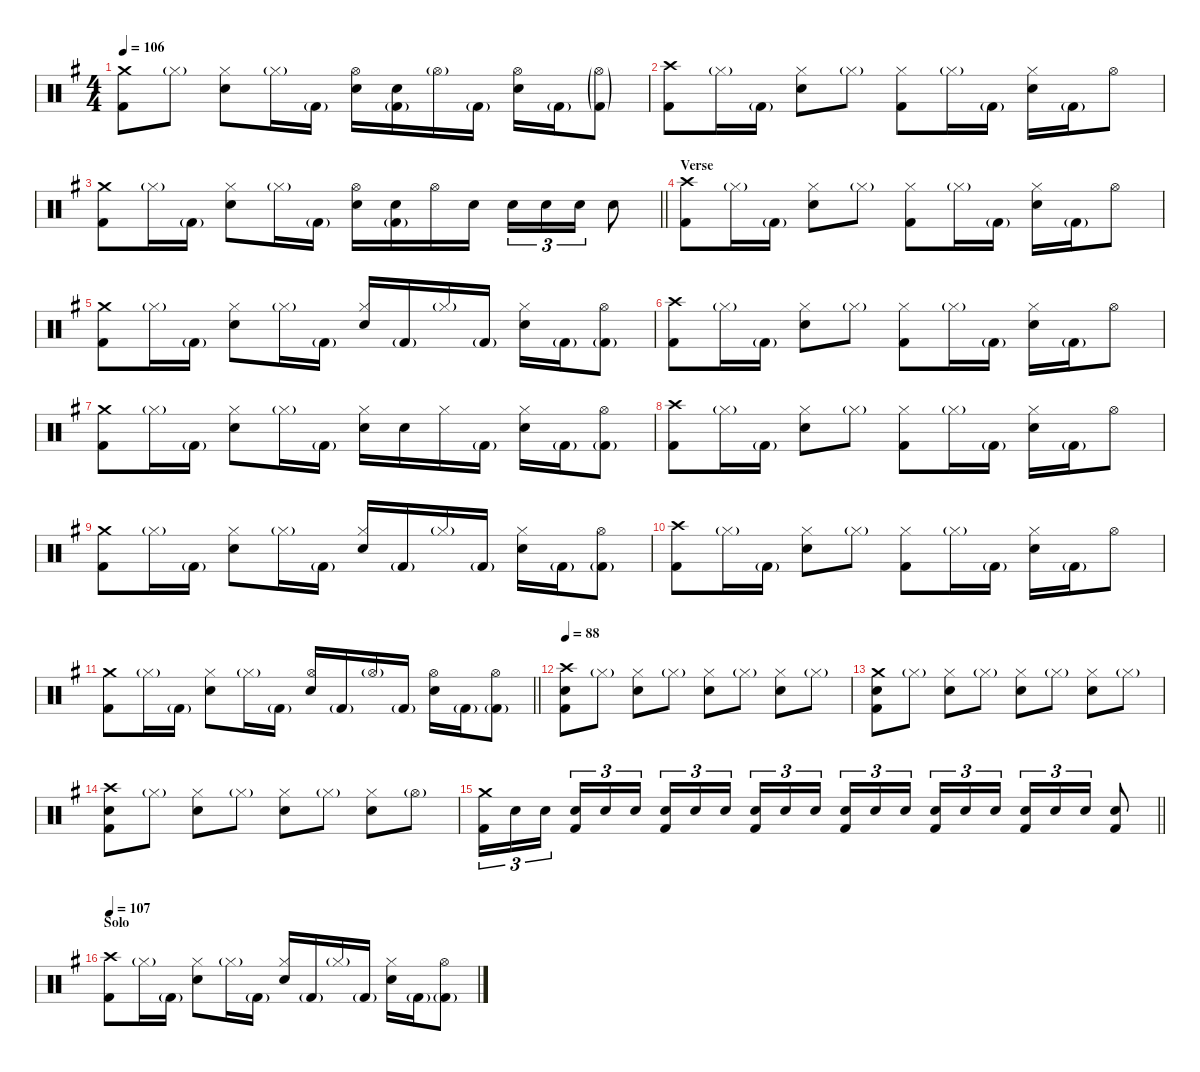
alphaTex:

\defaultSystemsLayout 4
\hideDynamics
\bracketExtendMode nobrackets
\singleTrackTrackNamePolicy hidden
\multiTrackTrackNamePolicy hidden
\firstSystemTrackNameMode fullname
\firstSystemTrackNameOrientation horizontal
\otherSystemsTrackNameOrientation horizontal
\track ("Bill" "drm.") {instrument percussion}
\staff {score}
\articulation defaults
\ts (4 4)
\tempo 106
\clef neutral
\ks eminor
("Crash medium (hit)"{acc forcenatural} "Kick (hit) 2"{acc forcenatural}).8{dy f beam Down} "Hi-Hat (closed)"{g acc forcenatural}.8{dy mf beam Down} ("Hi-Hat (closed)"{acc forcenatural} "Snare (hit) 2"{acc forcenatural}).8{dy f beam Down} "Hi-Hat (closed)"{g acc forcenatural}.16{dy mf beam Down} "Kick (hit) 2"{g acc forcenatural}.16{beam Down} ("Hi-Hat (open)"{acc forcenatural} "Snare (hit) 2"{acc forcenatural}).16{dy f beam Down} ("Snare (hit) 2"{acc forcenatural} "Kick (hit) 2"{g acc forcenatural}).16{beam Down} "Hi-Hat (open)"{g acc forcenatural}.16{dy mf beam Down} "Kick (hit) 2"{g acc forcenatural}.16{beam Down} ("Hi-Hat (open)"{acc forcenatural} "Snare (hit) 2"{acc forcenatural}).16{dy f beam Down} "Kick (hit) 2"{g acc forcenatural}.16{dy mf beam Down} ("Hi-Hat (open)"{g acc forcenatural} "Kick (hit) 2"{g acc forcenatural}).8{beam Down} |
("Crash high (hit)"{acc forcenatural} "Kick (hit) 2"{acc forcenatural}).8{dy f beam Down} "Hi-Hat (closed)"{g acc forcenatural}.16{dy mf beam Down} "Kick (hit) 2"{g acc forcenatural}.16{beam Down} ("Hi-Hat (closed)"{acc forcenatural} "Snare (hit) 2"{acc forcenatural}).8{dy f beam Down} "Hi-Hat (closed)"{g acc forcenatural}.8{dy mf beam Down} ("Hi-Hat (closed)"{acc forcenatural} "Kick (hit) 2"{acc forcenatural}).8{dy f beam Down} "Hi-Hat (closed)"{g acc forcenatural}.16{dy mf beam Down} "Kick (hit) 2"{g acc forcenatural}.16{beam Down} ("Hi-Hat (closed)"{acc forcenatural} "Snare (hit) 2"{acc forcenatural}).16{dy f beam Down} "Kick (hit) 2"{g acc forcenatural}.16{dy mf beam Down} "Hi-Hat (open)"{acc forcenatural}.8{dy f beam Down} |
\barLineRight lightlight
("Crash medium (hit)"{acc forcenatural} "Kick (hit) 2"{acc forcenatural}).8{beam Down} "Hi-Hat (closed)"{g acc forcenatural}.16{dy mf beam Down} "Kick (hit) 2"{g acc forcenatural}.16{beam Down} ("Hi-Hat (closed)"{acc forcenatural} "Snare (hit) 2"{acc forcenatural}).8{dy f beam Down} "Hi-Hat (closed)"{g acc forcenatural}.16{dy mf beam Down} "Kick (hit) 2"{g acc forcenatural}.16{beam Down} ("Hi-Hat (open)"{acc forcenatural} "Snare (hit) 2"{acc forcenatural}).16{dy f beam Down} ("Snare (hit) 2"{acc forcenatural} "Kick (hit) 2"{g acc forcenatural}).16{beam Down} "Hi-Hat (open)"{acc forcenatural}.16{beam Down} "Snare (hit) 2"{acc forcenatural}.16{beam Down} "Snare (hit) 2"{acc forcenatural}.16{tu (3 2) beam Down} "Snare (hit) 2"{acc forcenatural}.16{tu (3 2) beam Down} "Snare (hit) 2"{acc forcenatural}.16{tu (3 2) beam Down} "Snare (hit) 2"{acc forcenatural}.8{beam Down} |
\section ("" "Verse")
("Crash high (hit)"{acc forcenatural} "Kick (hit) 2"{acc forcenatural}).8{beam Down} "Hi-Hat (closed)"{g acc forcenatural}.16{dy mf beam Down} "Kick (hit) 2"{g acc forcenatural}.16{beam Down} ("Hi-Hat (closed)"{acc forcenatural} "Snare (hit) 2"{acc forcenatural}).8{dy f beam Down} "Hi-Hat (closed)"{g acc forcenatural}.8{dy mf beam Down} ("Hi-Hat (closed)"{acc forcenatural} "Kick (hit) 2"{acc forcenatural}).8{dy f beam Down} "Hi-Hat (closed)"{g acc forcenatural}.16{dy mf beam Down} "Kick (hit) 2"{g acc forcenatural}.16{beam Down} ("Hi-Hat (closed)"{acc forcenatural} "Snare (hit) 2"{acc forcenatural}).16{dy f beam Down} "Kick (hit) 2"{g acc forcenatural}.16{dy mf beam Down} "Hi-Hat (open)"{acc forcenatural}.8{dy f beam Down} |
("Crash medium (hit)"{acc forcenatural} "Kick (hit) 2"{acc forcenatural}).8{beam Down} "Hi-Hat (closed)"{g acc forcenatural}.16{dy mf beam Down} "Kick (hit) 2"{g acc forcenatural}.16{beam Down} ("Hi-Hat (closed)"{acc forcenatural} "Snare (hit) 2"{acc forcenatural}).8{dy f beam Down} "Hi-Hat (closed)"{g acc forcenatural}.16{dy mf beam Down} "Kick (hit) 2"{g acc forcenatural}.16{beam Down} ("Hi-Hat (closed)"{acc forcenatural} "Snare (hit) 2"{acc forcenatural}).16{dy f beam Up} "Kick (hit) 2"{g acc forcenatural}.16{dy mf beam Up} "Hi-Hat (closed)"{g acc forcenatural}.16{beam Up} "Kick (hit) 2"{g acc forcenatural}.16{beam Up} ("Hi-Hat (closed)"{acc forcenatural} "Snare (hit) 2"{acc forcenatural}).16{dy f beam Down} "Kick (hit) 2"{g acc forcenatural}.16{dy mf beam Down} ("Hi-Hat (open)"{acc forcenatural} "Kick (hit) 2"{g acc forcenatural}).8{dy f beam Down} |
("Crash high (hit)"{acc forcenatural} "Kick (hit) 2"{acc forcenatural}).8{beam Down} "Hi-Hat (closed)"{g acc forcenatural}.16{dy mf beam Down} "Kick (hit) 2"{g acc forcenatural}.16{beam Down} ("Hi-Hat (closed)"{acc forcenatural} "Snare (hit) 2"{acc forcenatural}).8{dy f beam Down} "Hi-Hat (closed)"{g acc forcenatural}.8{dy mf beam Down} ("Hi-Hat (closed)"{acc forcenatural} "Kick (hit) 2"{acc forcenatural}).8{dy f beam Down} "Hi-Hat (closed)"{g acc forcenatural}.16{dy mf beam Down} "Kick (hit) 2"{g acc forcenatural}.16{beam Down} ("Hi-Hat (closed)"{acc forcenatural} "Snare (hit) 2"{acc forcenatural}).16{dy f beam Down} "Kick (hit) 2"{g acc forcenatural}.16{dy mf beam Down} "Hi-Hat (open)"{acc forcenatural}.8{dy f beam Down} |
("Crash medium (hit)"{acc forcenatural} "Kick (hit) 2"{acc forcenatural}).8{beam Down} "Hi-Hat (closed)"{g acc forcenatural}.16{dy mf beam Down} "Kick (hit) 2"{g acc forcenatural}.16{beam Down} ("Hi-Hat (closed)"{acc forcenatural} "Snare (hit) 2"{acc forcenatural}).8{dy f beam Down} "Hi-Hat (closed)"{g acc forcenatural}.16{dy mf beam Down} "Kick (hit) 2"{g acc forcenatural}.16{beam Down} ("Hi-Hat (closed)"{acc forcenatural} "Snare (hit) 2"{acc forcenatural}).16{dy f beam Down} "Snare (hit) 2"{acc forcenatural}.16{beam Down} "Hi-Hat (closed)"{acc forcenatural}.16{beam Down} "Kick (hit) 2"{g acc forcenatural}.16{dy mf beam Down} ("Hi-Hat (closed)"{acc forcenatural} "Snare (hit) 2"{acc forcenatural}).16{dy f beam Down} "Kick (hit) 2"{g acc forcenatural}.16{dy mf beam Down} ("Hi-Hat (open)"{acc forcenatural} "Kick (hit) 2"{g acc forcenatural}).8{dy f beam Down} |
("Crash high (hit)"{acc forcenatural} "Kick (hit) 2"{acc forcenatural}).8{beam Down} "Hi-Hat (closed)"{g acc forcenatural}.16{dy mf beam Down} "Kick (hit) 2"{g acc forcenatural}.16{beam Down} ("Hi-Hat (closed)"{acc forcenatural} "Snare (hit) 2"{acc forcenatural}).8{dy f beam Down} "Hi-Hat (closed)"{g acc forcenatural}.8{dy mf beam Down} ("Hi-Hat (closed)"{acc forcenatural} "Kick (hit) 2"{acc forcenatural}).8{dy f beam Down} "Hi-Hat (closed)"{g acc forcenatural}.16{dy mf beam Down} "Kick (hit) 2"{g acc forcenatural}.16{beam Down} ("Hi-Hat (closed)"{acc forcenatural} "Snare (hit) 2"{acc forcenatural}).16{dy f beam Down} "Kick (hit) 2"{g acc forcenatural}.16{dy mf beam Down} "Hi-Hat (open)"{acc forcenatural}.8{dy f beam Down} |
("Crash medium (hit)"{acc forcenatural} "Kick (hit) 2"{acc forcenatural}).8{beam Down} "Hi-Hat (closed)"{g acc forcenatural}.16{dy mf beam Down} "Kick (hit) 2"{g acc forcenatural}.16{beam Down} ("Hi-Hat (closed)"{acc forcenatural} "Snare (hit) 2"{acc forcenatural}).8{dy f beam Down} "Hi-Hat (closed)"{g acc forcenatural}.16{dy mf beam Down} "Kick (hit) 2"{g acc forcenatural}.16{beam Down} ("Hi-Hat (closed)"{acc forcenatural} "Snare (hit) 2"{acc forcenatural}).16{dy f beam Up} "Kick (hit) 2"{g acc forcenatural}.16{dy mf beam Up} "Hi-Hat (closed)"{g acc forcenatural}.16{beam Up} "Kick (hit) 2"{g acc forcenatural}.16{beam Up} ("Hi-Hat (closed)"{acc forcenatural} "Snare (hit) 2"{acc forcenatural}).16{dy f beam Down} "Kick (hit) 2"{g acc forcenatural}.16{dy mf beam Down} ("Hi-Hat (open)"{acc forcenatural} "Kick (hit) 2"{g acc forcenatural}).8{dy f beam Down} |
("Crash high (hit)"{acc forcenatural} "Kick (hit) 2"{acc forcenatural}).8{beam Down} "Hi-Hat (closed)"{g acc forcenatural}.16{dy mf beam Down} "Kick (hit) 2"{g acc forcenatural}.16{beam Down} ("Hi-Hat (closed)"{acc forcenatural} "Snare (hit) 2"{acc forcenatural}).8{dy f beam Down} "Hi-Hat (closed)"{g acc forcenatural}.8{dy mf beam Down} ("Hi-Hat (closed)"{acc forcenatural} "Kick (hit) 2"{acc forcenatural}).8{dy f beam Down} "Hi-Hat (closed)"{g acc forcenatural}.16{dy mf beam Down} "Kick (hit) 2"{g acc forcenatural}.16{beam Down} ("Hi-Hat (closed)"{acc forcenatural} "Snare (hit) 2"{acc forcenatural}).16{dy f beam Down} "Kick (hit) 2"{g acc forcenatural}.16{dy mf beam Down} "Hi-Hat (open)"{acc forcenatural}.8{dy f beam Down} |
\barLineRight lightlight
("Crash medium (hit)"{acc forcenatural} "Kick (hit) 2"{acc forcenatural}).8{beam Down} "Hi-Hat (closed)"{g acc forcenatural}.16{dy mf beam Down} "Kick (hit) 2"{g acc forcenatural}.16{beam Down} ("Hi-Hat (closed)"{acc forcenatural} "Snare (hit) 2"{acc forcenatural}).8{dy f beam Down} "Hi-Hat (closed)"{g acc forcenatural}.16{dy mf beam Down} "Kick (hit) 2"{g acc forcenatural}.16{beam Down} ("Hi-Hat (open)"{acc forcenatural} "Snare (hit) 2"{acc forcenatural}).16{dy f beam Up} "Kick (hit) 2"{g acc forcenatural}.16{dy mf beam Up} "Hi-Hat (open)"{g acc forcenatural}.16{beam Up} "Kick (hit) 2"{g acc forcenatural}.16{beam Up} ("Hi-Hat (open)"{acc forcenatural} "Snare (hit) 2"{acc forcenatural}).16{dy f beam Down} "Kick (hit) 2"{g acc forcenatural}.16{dy mf beam Down} ("Hi-Hat (open)"{acc forcenatural} "Kick (hit) 2"{g acc forcenatural}).8{dy f beam Down} |
\section ("" "")
\tempo 88
("Crash high (hit)"{acc forcenatural} "Snare (hit) 2"{acc forcenatural} "Kick (hit) 2"{acc forcenatural}).8{beam Down} "Hi-Hat (closed)"{g acc forcenatural}.8{dy mf beam Down} ("Hi-Hat (closed)"{acc forcenatural} "Snare (hit) 2"{acc forcenatural}).8{dy f beam Down} "Hi-Hat (closed)"{g acc forcenatural}.8{dy mf beam Down} ("Hi-Hat (closed)"{acc forcenatural} "Snare (hit) 2"{acc forcenatural}).8{dy f beam Down} "Hi-Hat (closed)"{g acc forcenatural}.8{dy mf beam Down} ("Hi-Hat (closed)"{acc forcenatural} "Snare (hit) 2"{acc forcenatural}).8{dy f beam Down} "Hi-Hat (closed)"{g acc forcenatural}.8{dy mf beam Down} |
("Crash medium (hit)"{acc forcenatural} "Snare (hit) 2"{acc forcenatural} "Kick (hit) 2"{acc forcenatural}).8{dy f beam Down} "Hi-Hat (closed)"{g acc forcenatural}.8{dy mf beam Down} ("Hi-Hat (closed)"{acc forcenatural} "Snare (hit) 2"{acc forcenatural}).8{dy f beam Down} "Hi-Hat (closed)"{g acc forcenatural}.8{dy mf beam Down} ("Hi-Hat (closed)"{acc forcenatural} "Snare (hit) 2"{acc forcenatural}).8{dy f beam Down} "Hi-Hat (closed)"{g acc forcenatural}.8{dy mf beam Down} ("Hi-Hat (closed)"{acc forcenatural} "Snare (hit) 2"{acc forcenatural}).8{dy f beam Down} "Hi-Hat (closed)"{g acc forcenatural}.8{dy mf beam Down} |
("Crash high (hit)"{acc forcenatural} "Snare (hit) 2"{acc forcenatural} "Kick (hit) 2"{acc forcenatural}).8{dy f beam Down} "Hi-Hat (closed)"{g acc forcenatural}.8{dy mf beam Down} ("Hi-Hat (closed)"{acc forcenatural} "Snare (hit) 2"{acc forcenatural}).8{dy f beam Down} "Hi-Hat (closed)"{g acc forcenatural}.8{dy mf beam Down} ("Hi-Hat (closed)"{acc forcenatural} "Snare (hit) 2"{acc forcenatural}).8{dy f beam Down} "Hi-Hat (closed)"{g acc forcenatural}.8{dy mf beam Down} ("Hi-Hat (closed)"{acc forcenatural} "Snare (hit) 2"{acc forcenatural}).8{dy f beam Down} "Hi-Hat (open)"{g acc forcenatural}.8{dy mf beam Down} |
\barLineRight lightlight
("Crash medium (hit)"{acc forcenatural} "Kick (hit) 2"{acc forcenatural}).16{tu (3 2) dy f beam Down} "Snare (hit) 2"{acc forcenatural}.16{tu (3 2) dy p beam Down} "Snare (hit) 2"{acc forcenatural}.16{tu (3 2) beam Down} ("Snare (hit) 2"{acc forcenatural} "Kick (hit) 2"{acc forcenatural}).16{tu (3 2) dy mp beam Up} "Snare (hit) 2"{acc forcenatural}.16{tu (3 2) dy p beam Up} "Snare (hit) 2"{acc forcenatural}.16{tu (3 2) beam Up} ("Snare (hit) 2"{acc forcenatural} "Kick (hit) 2"{acc forcenatural}).16{tu (3 2) dy mf beam Up} "Snare (hit) 2"{acc forcenatural}.16{tu (3 2) dy p beam Up} "Snare (hit) 2"{acc forcenatural}.16{tu (3 2) beam Up} ("Snare (hit) 2"{acc forcenatural} "Kick (hit) 2"{acc forcenatural}).16{tu (3 2) dy mf beam Up} "Snare (hit) 2"{acc forcenatural}.16{tu (3 2) dy p beam Up} "Snare (hit) 2"{acc forcenatural}.16{tu (3 2) dy mp beam Up} ("Snare (hit) 2"{acc forcenatural} "Kick (hit) 2"{acc forcenatural}).16{tu (3 2) dy f beam Up} "Snare (hit) 2"{acc forcenatural}.16{tu (3 2) dy p beam Up} "Snare (hit) 2"{acc forcenatural}.16{tu (3 2) dy mp beam Up} ("Snare (hit) 2"{acc forcenatural} "Kick (hit) 2"{acc forcenatural}).16{tu (3 2) dy f beam Up} "Snare (hit) 2"{acc forcenatural}.16{tu (3 2) dy mp beam Up} "Snare (hit) 2"{acc forcenatural}.16{tu (3 2) dy mf beam Up} ("Snare (hit) 2"{acc forcenatural} "Kick (hit) 2"{acc forcenatural}).16{tu (3 2) dy ff beam Up} "Snare (hit) 2"{acc forcenatural}.16{tu (3 2) dy mf beam Up} "Snare (hit) 2"{acc forcenatural}.16{tu (3 2) dy f beam Up} ("Snare (hit) 2"{acc forcenatural} "Kick (hit) 2"{acc forcenatural}).8{dy ff beam Up} |
\section ("" "Solo")
\tempo 107
("Crash high (hit)"{acc forcenatural} "Kick (hit) 2"{acc forcenatural}).8{dy f beam Down} "Hi-Hat (closed)"{g acc forcenatural}.16{dy mf beam Down} "Kick (hit) 2"{g acc forcenatural}.16{beam Down} ("Hi-Hat (closed)"{acc forcenatural} "Snare (hit) 2"{acc forcenatural}).8{dy f beam Down} "Hi-Hat (closed)"{g acc forcenatural}.16{dy mf beam Down} "Kick (hit) 2"{g acc forcenatural}.16{beam Down} ("Hi-Hat (closed)"{acc forcenatural} "Snare (hit) 2"{acc forcenatural}).16{dy f beam Up} "Kick (hit) 2"{g acc forcenatural}.16{dy mf beam Up} "Hi-Hat (closed)"{g acc forcenatural}.16{beam Up} "Kick (hit) 2"{g acc forcenatural}.16{beam Up} ("Hi-Hat (closed)"{acc forcenatural} "Snare (hit) 2"{acc forcenatural}).16{dy f beam Down} "Kick (hit) 2"{g acc forcenatural}.16{dy mf beam Down} ("Hi-Hat (open)"{acc forcenatural} "Kick (hit) 2"{g acc forcenatural}).8{dy f beam Down}
